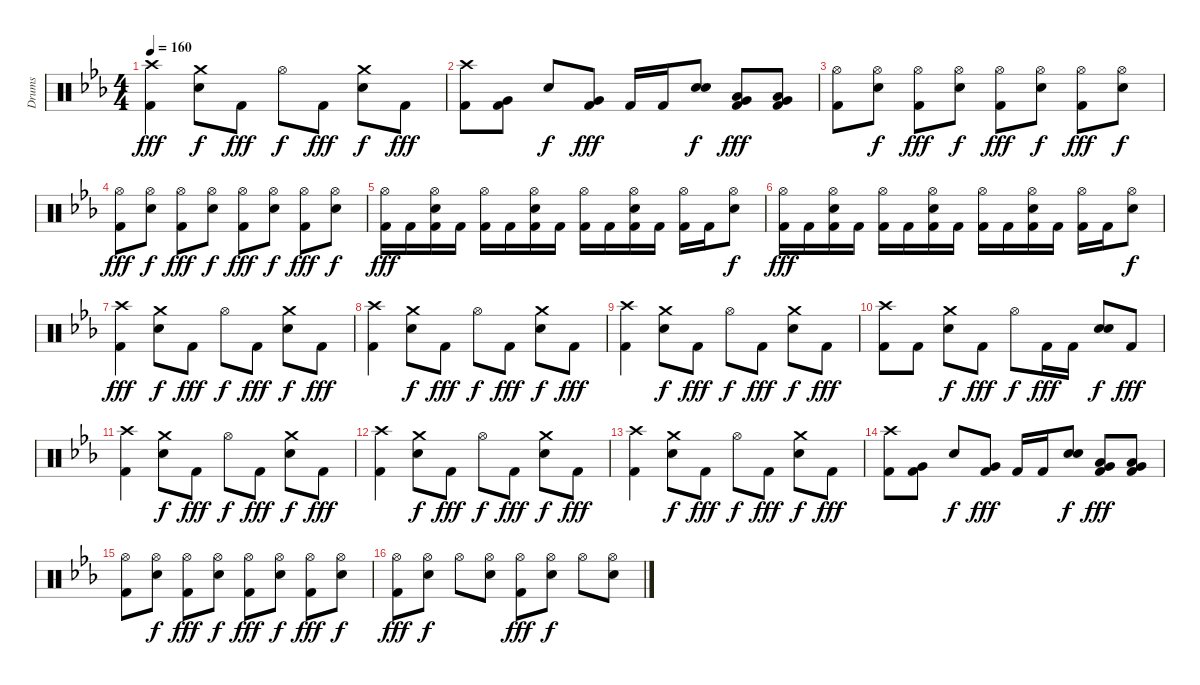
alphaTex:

\track ("Drums" "Drums") {instrument percussion}
\staff {score}
\articulation defaults
\ts (4 4)
\tempo 160
\clef neutral
\ks eb
("Crash high (hit)" "Kick (hit) 2").4{dy fff} ("Crash medium (hit)" "Electric Snare (hit)").8{dy f} "Kick (hit) 2".8{dy fff} "Hi-Hat (open)".8{dy f} "Kick (hit) 2".8{dy fff} ("Crash medium (hit)" "Electric Snare (hit)").8{dy f} "Kick (hit) 2".8{dy fff} |
("Crash high (hit)" "Kick (hit) 2").8 ("Very Low Tom (hit)" "Kick (hit) 2").8 "Electric Snare (hit)".8{dy f} ("Very Low Tom (hit)" "Kick (hit) 2").8{dy fff} "Kick (hit) 2".16 "Kick (hit) 2".16 ("Electric Snare (hit)" "Electric Snare (hit)").8{dy f} ("Low Tom (hit)" "Very Low Tom (hit)" "Kick (hit) 2").8{dy fff} ("Low Tom (hit)" "Very Low Tom (hit)" "Kick (hit) 2").8 |
("Hi-Hat (open)" "Kick (hit) 2").8 ("Hi-Hat (open)" "Electric Snare (hit)").8{dy f} ("Hi-Hat (open)" "Kick (hit) 2").8{dy fff} ("Hi-Hat (open)" "Electric Snare (hit)").8{dy f} ("Hi-Hat (open)" "Kick (hit) 2").8{dy fff} ("Hi-Hat (open)" "Electric Snare (hit)").8{dy f} ("Hi-Hat (open)" "Kick (hit) 2").8{dy fff} ("Hi-Hat (open)" "Electric Snare (hit)").8{dy f} |
("Hi-Hat (open)" "Kick (hit) 2").8{dy fff} ("Hi-Hat (open)" "Electric Snare (hit)").8{dy f} ("Hi-Hat (open)" "Kick (hit) 2").8{dy fff} ("Hi-Hat (open)" "Electric Snare (hit)").8{dy f} ("Hi-Hat (open)" "Kick (hit) 2").8{dy fff} ("Hi-Hat (open)" "Electric Snare (hit)").8{dy f} ("Hi-Hat (open)" "Kick (hit) 2").8{dy fff} ("Hi-Hat (open)" "Electric Snare (hit)").8{dy f} |
("Hi-Hat (open)" "Kick (hit) 2").16{dy fff} "Kick (hit) 2".16 ("Hi-Hat (open)" "Electric Snare (hit)" "Kick (hit) 2").16 "Kick (hit) 2".16 ("Hi-Hat (open)" "Kick (hit) 2").16 "Kick (hit) 2".16 ("Hi-Hat (open)" "Electric Snare (hit)" "Kick (hit) 2").16 "Kick (hit) 2".16 ("Hi-Hat (open)" "Kick (hit) 2").16 "Kick (hit) 2".16 ("Hi-Hat (open)" "Electric Snare (hit)" "Kick (hit) 2").16 "Kick (hit) 2".16 ("Hi-Hat (open)" "Kick (hit) 2").16 "Kick (hit) 2".16 ("Hi-Hat (open)" "Electric Snare (hit)").8{dy f} |
("Hi-Hat (open)" "Kick (hit) 2").16{dy fff} "Kick (hit) 2".16 ("Hi-Hat (open)" "Electric Snare (hit)" "Kick (hit) 2").16 "Kick (hit) 2".16 ("Hi-Hat (open)" "Kick (hit) 2").16 "Kick (hit) 2".16 ("Hi-Hat (open)" "Electric Snare (hit)" "Kick (hit) 2").16 "Kick (hit) 2".16 ("Hi-Hat (open)" "Kick (hit) 2").16 "Kick (hit) 2".16 ("Hi-Hat (open)" "Electric Snare (hit)" "Kick (hit) 2").16 "Kick (hit) 2".16 ("Hi-Hat (open)" "Kick (hit) 2").16 "Kick (hit) 2".16 ("Hi-Hat (open)" "Electric Snare (hit)").8{dy f} |
("Crash high (hit)" "Kick (hit) 2").4{dy fff} ("Crash medium (hit)" "Electric Snare (hit)").8{dy f} "Kick (hit) 2".8{dy fff} "Hi-Hat (open)".8{dy f} "Kick (hit) 2".8{dy fff} ("Crash medium (hit)" "Electric Snare (hit)").8{dy f} "Kick (hit) 2".8{dy fff} |
("Crash high (hit)" "Kick (hit) 2").4 ("Crash medium (hit)" "Electric Snare (hit)").8{dy f} "Kick (hit) 2".8{dy fff} "Hi-Hat (open)".8{dy f} "Kick (hit) 2".8{dy fff} ("Crash medium (hit)" "Electric Snare (hit)").8{dy f} "Kick (hit) 2".8{dy fff} |
("Crash high (hit)" "Kick (hit) 2").4 ("Crash medium (hit)" "Electric Snare (hit)").8{dy f} "Kick (hit) 2".8{dy fff} "Hi-Hat (open)".8{dy f} "Kick (hit) 2".8{dy fff} ("Crash medium (hit)" "Electric Snare (hit)").8{dy f} "Kick (hit) 2".8{dy fff} |
("Crash high (hit)" "Kick (hit) 2").8 "Kick (hit) 2".8 ("Crash medium (hit)" "Electric Snare (hit)").8{dy f} "Kick (hit) 2".8{dy fff} "Hi-Hat (open)".8{dy f} "Kick (hit) 2".16{dy fff} "Kick (hit) 2".16 ("Electric Snare (hit)" "Electric Snare (hit)").8{bd 60 dy f} "Kick (hit) 2".8{dy fff} |
("Crash high (hit)" "Kick (hit) 2").4 ("Crash medium (hit)" "Electric Snare (hit)").8{dy f} "Kick (hit) 2".8{dy fff} "Hi-Hat (open)".8{dy f} "Kick (hit) 2".8{dy fff} ("Crash medium (hit)" "Electric Snare (hit)").8{dy f} "Kick (hit) 2".8{dy fff} |
("Crash high (hit)" "Kick (hit) 2").4 ("Crash medium (hit)" "Electric Snare (hit)").8{dy f} "Kick (hit) 2".8{dy fff} "Hi-Hat (open)".8{dy f} "Kick (hit) 2".8{dy fff} ("Crash medium (hit)" "Electric Snare (hit)").8{dy f} "Kick (hit) 2".8{dy fff} |
("Crash high (hit)" "Kick (hit) 2").4 ("Crash medium (hit)" "Electric Snare (hit)").8{dy f} "Kick (hit) 2".8{dy fff} "Hi-Hat (open)".8{dy f} "Kick (hit) 2".8{dy fff} ("Crash medium (hit)" "Electric Snare (hit)").8{dy f} "Kick (hit) 2".8{dy fff} |
("Crash high (hit)" "Kick (hit) 2").8 ("Very Low Tom (hit)" "Kick (hit) 2").8 "Electric Snare (hit)".8{dy f} ("Very Low Tom (hit)" "Kick (hit) 2").8{dy fff} "Kick (hit) 2".16 "Kick (hit) 2".16 ("Electric Snare (hit)" "Electric Snare (hit)").8{dy f} ("Low Tom (hit)" "Very Low Tom (hit)" "Kick (hit) 2").8{dy fff} ("Low Tom (hit)" "Very Low Tom (hit)" "Kick (hit) 2").8 |
("Hi-Hat (open)" "Kick (hit) 2").8 ("Hi-Hat (open)" "Electric Snare (hit)").8{dy f} ("Hi-Hat (open)" "Kick (hit) 2").8{dy fff} ("Hi-Hat (open)" "Electric Snare (hit)").8{dy f} ("Hi-Hat (open)" "Kick (hit) 2").8{dy fff} ("Hi-Hat (open)" "Electric Snare (hit)").8{dy f} ("Hi-Hat (open)" "Kick (hit) 2").8{dy fff} ("Hi-Hat (open)" "Electric Snare (hit)").8{dy f} |
("Hi-Hat (open)" "Kick (hit) 2").8{dy fff} ("Hi-Hat (open)" "Electric Snare (hit)").8{dy f} "Hi-Hat (open)".8 ("Hi-Hat (open)" "Electric Snare (hit)").8 ("Hi-Hat (open)" "Kick (hit) 2").8{dy fff} ("Hi-Hat (open)" "Electric Snare (hit)").8{dy f} "Hi-Hat (open)".8 ("Hi-Hat (open)" "Electric Snare (hit)").8
